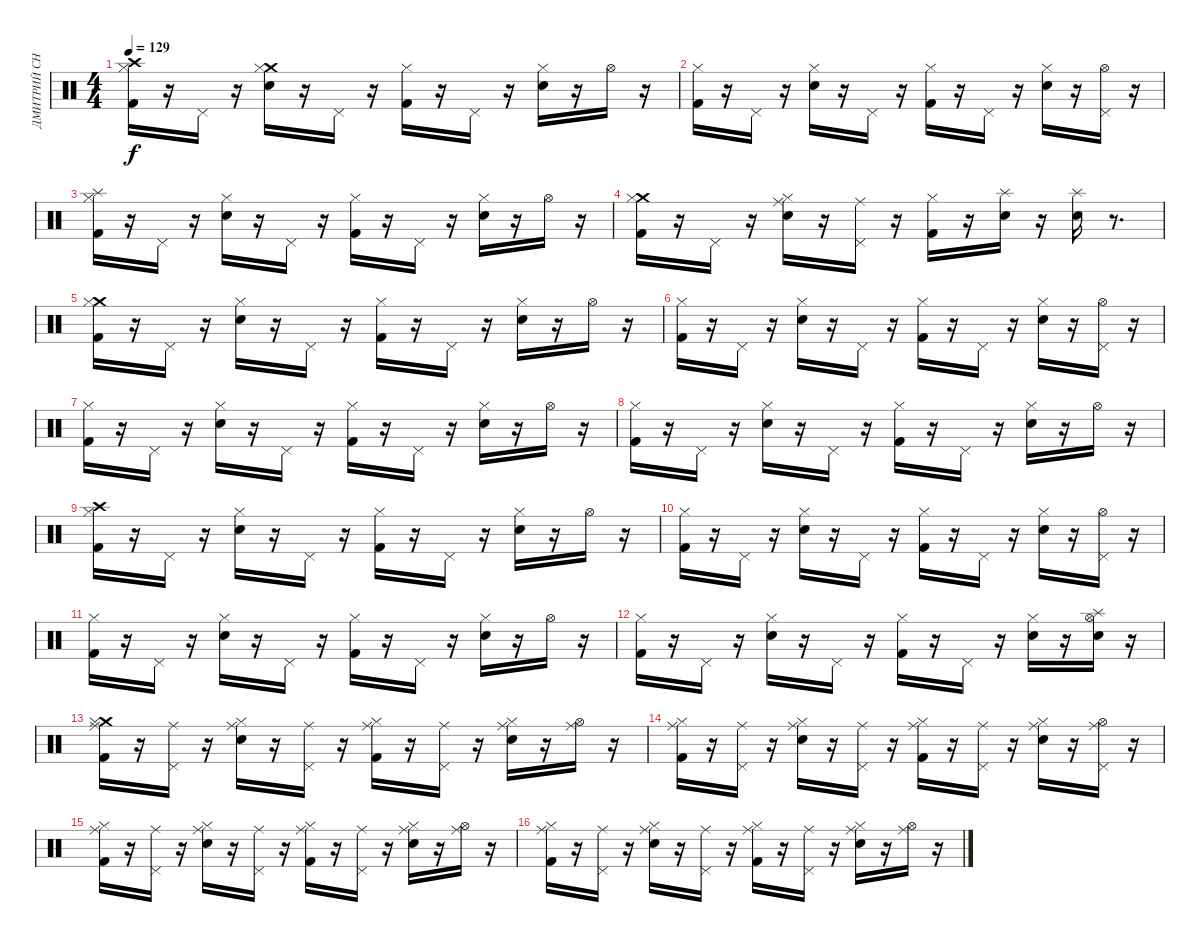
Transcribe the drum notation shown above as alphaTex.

\track ("ДМИТРИЙ СНЭЙК" "ДМИТРИЙ СН") {instrument percussion}
\staff {score}
\articulation defaults
\ts (4 4)
\tempo 129
\clef neutral
\ks c
("Crash high (hit)" "Hi-Hat (closed)" "Kick (hit) 2").16{dy f} r.16 "Pedal Hi-Hat (hit)".16 r.16 ("Crash medium (hit)" "Hi-Hat (closed)" "Electric Snare (hit)").16 r.16 "Pedal Hi-Hat (hit)".16 r.16 ("Hi-Hat (closed)" "Kick (hit) 2").16 r.16 "Pedal Hi-Hat (hit)".16 r.16 ("Hi-Hat (closed)" "Electric Snare (hit)").16 r.16 "Hi-Hat (open)".16 r.16 |
("Hi-Hat (closed)" "Kick (hit) 2").16 r.16 "Pedal Hi-Hat (hit)".16 r.16 ("Hi-Hat (closed)" "Electric Snare (hit)").16 r.16 "Pedal Hi-Hat (hit)".16 r.16 ("Hi-Hat (closed)" "Kick (hit) 2").16 r.16 "Pedal Hi-Hat (hit)".16 r.16 ("Hi-Hat (closed)" "Electric Snare (hit)").16 r.16 ("Pedal Hi-Hat (hit)" "Hi-Hat (open)").16 r.16 |
("Splash (hit)" "Hi-Hat (closed)" "Kick (hit) 2").16 r.16 "Pedal Hi-Hat (hit)".16 r.16 ("Hi-Hat (closed)" "Electric Snare (hit)").16 r.16 "Pedal Hi-Hat (hit)".16 r.16 ("Hi-Hat (closed)" "Kick (hit) 2").16 r.16 "Pedal Hi-Hat (hit)".16 r.16 ("Hi-Hat (closed)" "Electric Snare (hit)").16 r.16 "Hi-Hat (open)".16 r.16 |
("Crash medium (hit)" "Hi-Hat (closed)" "Kick (hit) 2").16 r.16 "Pedal Hi-Hat (hit)".16 r.16 ("Ride (middle)" "Hi-Hat (closed)" "Electric Snare (hit)").16 r.16 ("Ride (middle)" "Pedal Hi-Hat (hit)").16 r.16 ("Kick (hit) 2" "Hi-Hat (closed)").16 r.16 ("Splash (hit)" "Electric Snare (hit)").16 r.16 ("Splash (hit)" "Electric Snare (hit)").16 r.8{d} |
("Crash medium (hit)" "Hi-Hat (closed)" "Kick (hit) 2").16 r.16 "Pedal Hi-Hat (hit)".16 r.16 ("Hi-Hat (closed)" "Electric Snare (hit)").16 r.16 "Pedal Hi-Hat (hit)".16 r.16 ("Hi-Hat (closed)" "Kick (hit) 2").16 r.16 "Pedal Hi-Hat (hit)".16 r.16 ("Hi-Hat (closed)" "Electric Snare (hit)").16 r.16 "Hi-Hat (open)".16 r.16 |
("Hi-Hat (closed)" "Kick (hit) 2").16 r.16 "Pedal Hi-Hat (hit)".16 r.16 ("Hi-Hat (closed)" "Electric Snare (hit)").16 r.16 "Pedal Hi-Hat (hit)".16 r.16 ("Hi-Hat (closed)" "Kick (hit) 2").16 r.16 "Pedal Hi-Hat (hit)".16 r.16 ("Hi-Hat (closed)" "Electric Snare (hit)").16 r.16 ("Pedal Hi-Hat (hit)" "Hi-Hat (open)").16 r.16 |
("Hi-Hat (closed)" "Kick (hit) 2").16 r.16 "Pedal Hi-Hat (hit)".16 r.16 ("Hi-Hat (closed)" "Electric Snare (hit)").16 r.16 "Pedal Hi-Hat (hit)".16 r.16 ("Hi-Hat (closed)" "Kick (hit) 2").16 r.16 "Pedal Hi-Hat (hit)".16 r.16 ("Hi-Hat (closed)" "Electric Snare (hit)").16 r.16 "Hi-Hat (open)".16 r.16 |
("Hi-Hat (closed)" "Kick (hit) 2").16 r.16 "Pedal Hi-Hat (hit)".16 r.16 ("Hi-Hat (closed)" "Electric Snare (hit)").16 r.16 "Pedal Hi-Hat (hit)".16 r.16 ("Hi-Hat (closed)" "Kick (hit) 2").16 r.16 "Pedal Hi-Hat (hit)".16 r.16 ("Hi-Hat (closed)" "Electric Snare (hit)").16 r.16 "Hi-Hat (open)".16 r.16 |
("Crash high (hit)" "Hi-Hat (closed)" "Kick (hit) 2").16 r.16 "Pedal Hi-Hat (hit)".16 r.16 ("Hi-Hat (closed)" "Electric Snare (hit)").16 r.16 "Pedal Hi-Hat (hit)".16 r.16 ("Hi-Hat (closed)" "Kick (hit) 2").16 r.16 "Pedal Hi-Hat (hit)".16 r.16 ("Hi-Hat (closed)" "Electric Snare (hit)").16 r.16 "Hi-Hat (open)".16 r.16 |
("Hi-Hat (closed)" "Kick (hit) 2").16 r.16 "Pedal Hi-Hat (hit)".16 r.16 ("Hi-Hat (closed)" "Electric Snare (hit)").16 r.16 "Pedal Hi-Hat (hit)".16 r.16 ("Hi-Hat (closed)" "Kick (hit) 2").16 r.16 "Pedal Hi-Hat (hit)".16 r.16 ("Hi-Hat (closed)" "Electric Snare (hit)").16 r.16 ("Pedal Hi-Hat (hit)" "Hi-Hat (open)").16 r.16 |
("Hi-Hat (closed)" "Kick (hit) 2").16 r.16 "Pedal Hi-Hat (hit)".16 r.16 ("Hi-Hat (closed)" "Electric Snare (hit)").16 r.16 "Pedal Hi-Hat (hit)".16 r.16 ("Hi-Hat (closed)" "Kick (hit) 2").16 r.16 "Pedal Hi-Hat (hit)".16 r.16 ("Hi-Hat (closed)" "Electric Snare (hit)").16 r.16 "Hi-Hat (open)".16 r.16 |
("Hi-Hat (closed)" "Kick (hit) 2").16 r.16 "Pedal Hi-Hat (hit)".16 r.16 ("Hi-Hat (closed)" "Electric Snare (hit)").16 r.16 "Pedal Hi-Hat (hit)".16 r.16 ("Hi-Hat (closed)" "Kick (hit) 2").16 r.16 "Pedal Hi-Hat (hit)".16 r.16 ("Hi-Hat (closed)" "Electric Snare (hit)").16 r.16 ("Splash (hit)" "Electric Snare (hit)" "Hi-Hat (open)").16 r.16 |
("Ride (middle)" "Crash medium (hit)" "Hi-Hat (closed)" "Kick (hit) 2").16 r.16 ("Ride (middle)" "Pedal Hi-Hat (hit)").16 r.16 ("Ride (middle)" "Hi-Hat (closed)" "Electric Snare (hit)").16 r.16 ("Ride (middle)" "Pedal Hi-Hat (hit)").16 r.16 ("Ride (middle)" "Hi-Hat (closed)" "Kick (hit) 2").16 r.16 ("Ride (middle)" "Pedal Hi-Hat (hit)").16 r.16 ("Ride (middle)" "Electric Snare (hit)" "Hi-Hat (closed)").16 r.16 ("Ride (middle)" "Hi-Hat (open)").16 r.16 |
("Ride (middle)" "Hi-Hat (closed)" "Kick (hit) 2").16 r.16 ("Ride (middle)" "Pedal Hi-Hat (hit)").16 r.16 ("Ride (middle)" "Hi-Hat (closed)" "Electric Snare (hit)").16 r.16 ("Ride (middle)" "Pedal Hi-Hat (hit)").16 r.16 ("Ride (middle)" "Hi-Hat (closed)" "Kick (hit) 2").16 r.16 ("Ride (middle)" "Pedal Hi-Hat (hit)").16 r.16 ("Ride (middle)" "Hi-Hat (closed)" "Electric Snare (hit)").16 r.16 ("Ride (middle)" "Pedal Hi-Hat (hit)" "Hi-Hat (open)").16 r.16 |
("Ride (middle)" "Hi-Hat (closed)" "Kick (hit) 2").16 r.16 ("Ride (middle)" "Pedal Hi-Hat (hit)").16 r.16 ("Ride (middle)" "Hi-Hat (closed)" "Electric Snare (hit)").16 r.16 ("Ride (middle)" "Pedal Hi-Hat (hit)").16 r.16 ("Ride (middle)" "Hi-Hat (closed)" "Kick (hit) 2").16 r.16 ("Ride (middle)" "Pedal Hi-Hat (hit)").16 r.16 ("Ride (middle)" "Electric Snare (hit)" "Hi-Hat (closed)").16 r.16 ("Ride (middle)" "Hi-Hat (open)").16 r.16 |
("Ride (middle)" "Hi-Hat (closed)" "Kick (hit) 2").16 r.16 ("Ride (middle)" "Pedal Hi-Hat (hit)").16 r.16 ("Ride (middle)" "Hi-Hat (closed)" "Electric Snare (hit)").16 r.16 ("Ride (middle)" "Pedal Hi-Hat (hit)").16 r.16 ("Ride (middle)" "Hi-Hat (closed)" "Kick (hit) 2").16 r.16 ("Ride (middle)" "Pedal Hi-Hat (hit)").16 r.16 ("Ride (middle)" "Hi-Hat (closed)" "Electric Snare (hit)").16 r.16 ("Ride (middle)" "Hi-Hat (open)").16 r.16
